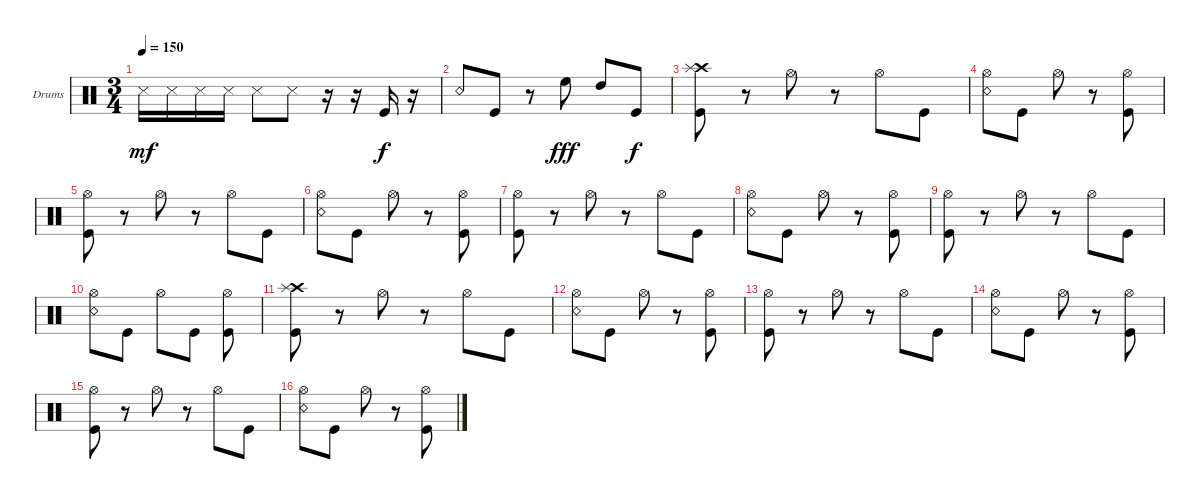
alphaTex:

\defaultSystemsLayout 4
\bracketExtendMode groupsimilarinstruments
\firstSystemTrackNameOrientation horizontal
\otherSystemsTrackNameOrientation horizontal
\track ("Scott" "Drums") {instrument percussion}
\staff {score}
\articulation defaults
\ts (3 4)
\tempo 150
\clef neutral
\scale
0.333333
\ks c "Snare (side stick) 3".16{dy mf} "Snare (side stick) 3".16 "Snare (side stick) 3".16 "Snare (side stick) 3".16 "Snare (side stick) 3".8 "Snare (side stick) 3".8
r.16 r.16 "Kick (hit)".16{dy f} r.16 |
\scale
0.333333 "Snare (rim shot)".8 "Kick (hit)".8 r.8 "High Floor Tom (hit)".8{dy fff} "High Tom (hit)".8 "Kick (hit)".8{dy f} |
\scale
0.333333 ("Kick (hit)" "Crash high (hit)" "Splash (hit)").8 r.8 "Hi-Hat (open)".8 r.8 "Hi-Hat (open)".8 "Kick (hit)".8 |
\scale
0.333333 ("Snare (rim shot)" "Hi-Hat (open)").8 "Kick (hit)".8 "Hi-Hat (open)".8 r.8 ("Kick (hit)" "Hi-Hat (open)").8 |
\scale
0.333333 ("Kick (hit)" "Hi-Hat (open)").8 r.8 "Hi-Hat (open)".8 r.8 "Hi-Hat (open)".8 "Kick (hit)".8 |
\scale
0.333333 ("Snare (rim shot)" "Hi-Hat (open)").8 "Kick (hit)".8 "Hi-Hat (open)".8 r.8 ("Kick (hit)" "Hi-Hat (open)").8 |
\scale
0.333333 ("Kick (hit)" "Hi-Hat (open)").8 r.8 "Hi-Hat (open)".8 r.8 "Hi-Hat (open)".8 "Kick (hit)".8 |
\scale
0.333333 ("Snare (rim shot)" "Hi-Hat (open)").8 "Kick (hit)".8 "Hi-Hat (open)".8 r.8 ("Kick (hit)" "Hi-Hat (open)").8 |
\scale
0.333333 ("Kick (hit)" "Hi-Hat (open)").8 r.8 "Hi-Hat (open)".8 r.8 "Hi-Hat (open)".8 "Kick (hit)".8 |
\scale
0.333333 ("Snare (rim shot)" "Hi-Hat (open)").8 "Kick (hit)".8 "Hi-Hat (open)".8 "Kick (hit)".8 ("Kick (hit)" "Hi-Hat (open)").8 |
\scale
0.333333 ("Kick (hit)" "Crash high (hit)" "Splash (hit)").8 r.8 "Hi-Hat (open)".8 r.8 "Hi-Hat (open)".8 "Kick (hit)".8 |
\scale
0.333333 ("Snare (rim shot)" "Hi-Hat (open)").8 "Kick (hit)".8 "Hi-Hat (open)".8 r.8 ("Kick (hit)" "Hi-Hat (open)").8 |
\scale
0.333333 ("Kick (hit)" "Hi-Hat (open)").8 r.8 "Hi-Hat (open)".8 r.8 "Hi-Hat (open)".8 "Kick (hit)".8 |
\scale
0.333333 ("Snare (rim shot)" "Hi-Hat (open)").8 "Kick (hit)".8 "Hi-Hat (open)".8 r.8 ("Kick (hit)" "Hi-Hat (open)").8 |
\scale
0.333333 ("Kick (hit)" "Hi-Hat (open)").8 r.8 "Hi-Hat (open)".8 r.8 "Hi-Hat (open)".8 "Kick (hit)".8 |
\scale
0.333333 ("Snare (rim shot)" "Hi-Hat (open)").8 "Kick (hit)".8 "Hi-Hat (open)".8 r.8 ("Kick (hit)" "Hi-Hat (open)").8
